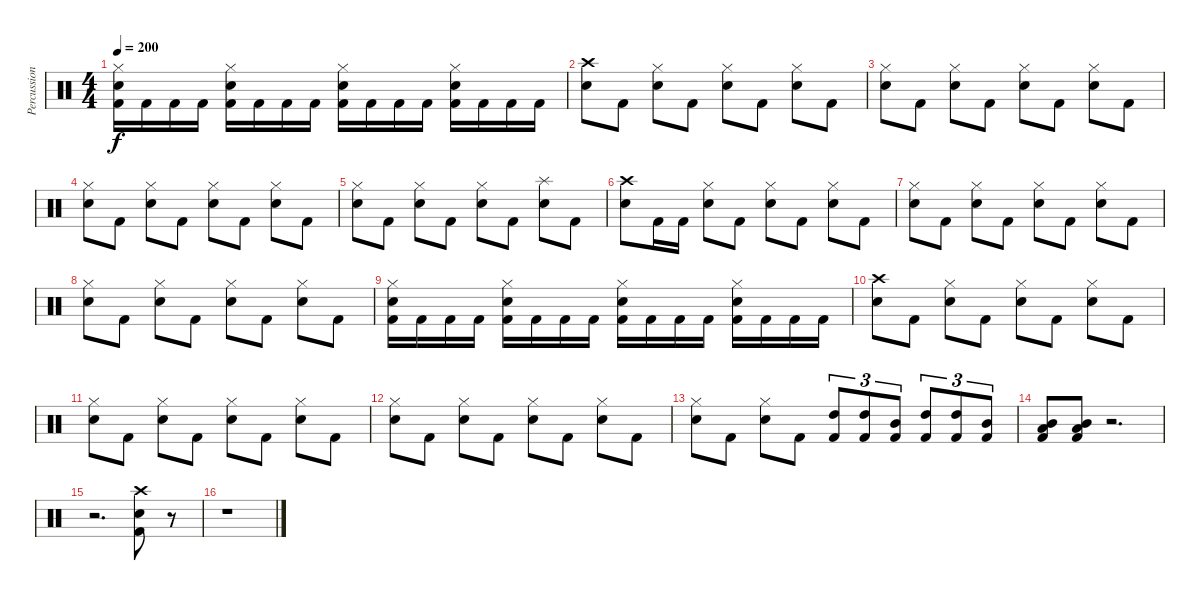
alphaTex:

\track ("Percussion" "Percussion") {instrument percussion}
\staff {score}
\articulation defaults
\ts (4 4)
\tempo 200
\clef neutral
\ks c
("Hi-Hat (closed)" "Snare (hit) 2" "Kick (hit) 2").16{dy f} "Kick (hit) 2".16 "Kick (hit) 2".16 "Kick (hit) 2".16 ("Hi-Hat (closed)" "Snare (hit) 2" "Kick (hit) 2").16 "Kick (hit) 2".16 "Kick (hit) 2".16 "Kick (hit) 2".16 ("Hi-Hat (closed)" "Snare (hit) 2" "Kick (hit) 2").16 "Kick (hit) 2".16 "Kick (hit) 2".16 "Kick (hit) 2".16 ("Hi-Hat (closed)" "Snare (hit) 2" "Kick (hit) 2").16 "Kick (hit) 2".16 "Kick (hit) 2".16 "Kick (hit) 2".16 |
("Crash high (hit)" "Snare (hit) 2").8 "Kick (hit) 2".8 ("Hi-Hat (closed)" "Snare (hit) 2").8 "Kick (hit) 2".8 ("Hi-Hat (closed)" "Snare (hit) 2").8 "Kick (hit) 2".8 ("Hi-Hat (closed)" "Snare (hit) 2").8 "Kick (hit) 2".8 |
("Hi-Hat (closed)" "Snare (hit) 2").8 "Kick (hit) 2".8 ("Hi-Hat (closed)" "Snare (hit) 2").8 "Kick (hit) 2".8 ("Hi-Hat (closed)" "Snare (hit) 2").8 "Kick (hit) 2".8 ("Hi-Hat (closed)" "Snare (hit) 2").8 "Kick (hit) 2".8 |
("Hi-Hat (closed)" "Snare (hit) 2").8 "Kick (hit) 2".8 ("Hi-Hat (closed)" "Snare (hit) 2").8 "Kick (hit) 2".8 ("Hi-Hat (closed)" "Snare (hit) 2").8 "Kick (hit) 2".8 ("Hi-Hat (closed)" "Snare (hit) 2").8 "Kick (hit) 2".8 |
("Hi-Hat (closed)" "Snare (hit) 2").8 "Kick (hit) 2".8 ("Hi-Hat (closed)" "Snare (hit) 2").8 "Kick (hit) 2".8 ("Hi-Hat (closed)" "Snare (hit) 2").8 "Kick (hit) 2".8 ("Splash (hit)" "Snare (hit) 2").8 "Kick (hit) 2".8 |
("Crash high (hit)" "Snare (hit) 2").8 "Kick (hit) 2".16 "Kick (hit) 2".16 ("Hi-Hat (closed)" "Snare (hit) 2").8 "Kick (hit) 2".8 ("Hi-Hat (closed)" "Snare (hit) 2").8 "Kick (hit) 2".8 ("Hi-Hat (closed)" "Snare (hit) 2").8 "Kick (hit) 2".8 |
("Hi-Hat (closed)" "Snare (hit) 2").8 "Kick (hit) 2".8 ("Hi-Hat (closed)" "Snare (hit) 2").8 "Kick (hit) 2".8 ("Hi-Hat (closed)" "Snare (hit) 2").8 "Kick (hit) 2".8 ("Hi-Hat (closed)" "Snare (hit) 2").8 "Kick (hit) 2".8 |
("Hi-Hat (closed)" "Snare (hit) 2").8 "Kick (hit) 2".8 ("Hi-Hat (closed)" "Snare (hit) 2").8 "Kick (hit) 2".8 ("Hi-Hat (closed)" "Snare (hit) 2").8 "Kick (hit) 2".8 ("Hi-Hat (closed)" "Snare (hit) 2").8 "Kick (hit) 2".8 |
("Hi-Hat (closed)" "Snare (hit) 2" "Kick (hit) 2").16 "Kick (hit) 2".16 "Kick (hit) 2".16 "Kick (hit) 2".16 ("Hi-Hat (closed)" "Snare (hit) 2" "Kick (hit) 2").16 "Kick (hit) 2".16 "Kick (hit) 2".16 "Kick (hit) 2".16 ("Hi-Hat (closed)" "Snare (hit) 2" "Kick (hit) 2").16 "Kick (hit) 2".16 "Kick (hit) 2".16 "Kick (hit) 2".16 ("Hi-Hat (closed)" "Snare (hit) 2" "Kick (hit) 2").16 "Kick (hit) 2".16 "Kick (hit) 2".16 "Kick (hit) 2".16 |
("Crash high (hit)" "Snare (hit) 2").8 "Kick (hit) 2".8 ("Hi-Hat (closed)" "Snare (hit) 2").8 "Kick (hit) 2".8 ("Hi-Hat (closed)" "Snare (hit) 2").8 "Kick (hit) 2".8 ("Hi-Hat (closed)" "Snare (hit) 2").8 "Kick (hit) 2".8 |
("Hi-Hat (closed)" "Snare (hit) 2").8 "Kick (hit) 2".8 ("Hi-Hat (closed)" "Snare (hit) 2").8 "Kick (hit) 2".8 ("Hi-Hat (closed)" "Snare (hit) 2").8 "Kick (hit) 2".8 ("Hi-Hat (closed)" "Snare (hit) 2").8 "Kick (hit) 2".8 |
("Hi-Hat (closed)" "Snare (hit) 2").8 "Kick (hit) 2".8 ("Hi-Hat (closed)" "Snare (hit) 2").8 "Kick (hit) 2".8 ("Hi-Hat (closed)" "Snare (hit) 2").8 "Kick (hit) 2".8 ("Hi-Hat (closed)" "Snare (hit) 2").8 "Kick (hit) 2".8 |
("Hi-Hat (closed)" "Snare (hit) 2").8 "Kick (hit) 2".8 ("Hi-Hat (closed)" "Snare (hit) 2").8 "Kick (hit) 2".8 ("High Tom (hit)" "Kick (hit) 2").8{tu (3 2)} ("High Tom (hit)" "Kick (hit) 2").8{tu (3 2)} ("Mid Tom (hit)" "Kick (hit) 2").8{tu (3 2)} ("High Tom (hit)" "Kick (hit) 2").8{tu (3 2)} ("High Tom (hit)" "Kick (hit) 2").8{tu (3 2)} ("Mid Tom (hit)" "Kick (hit) 2").8{tu (3 2)} |
("Mid Tom (hit)" "Low Tom (hit)" "Kick (hit) 2").8 ("Mid Tom (hit)" "Low Tom (hit)" "Kick (hit) 2").8 r.2{d} |
r.2{d} ("Crash high (hit)" "Snare (hit) 2" "Kick (hit) 2").8 r.8{volume 0} |
r.1
